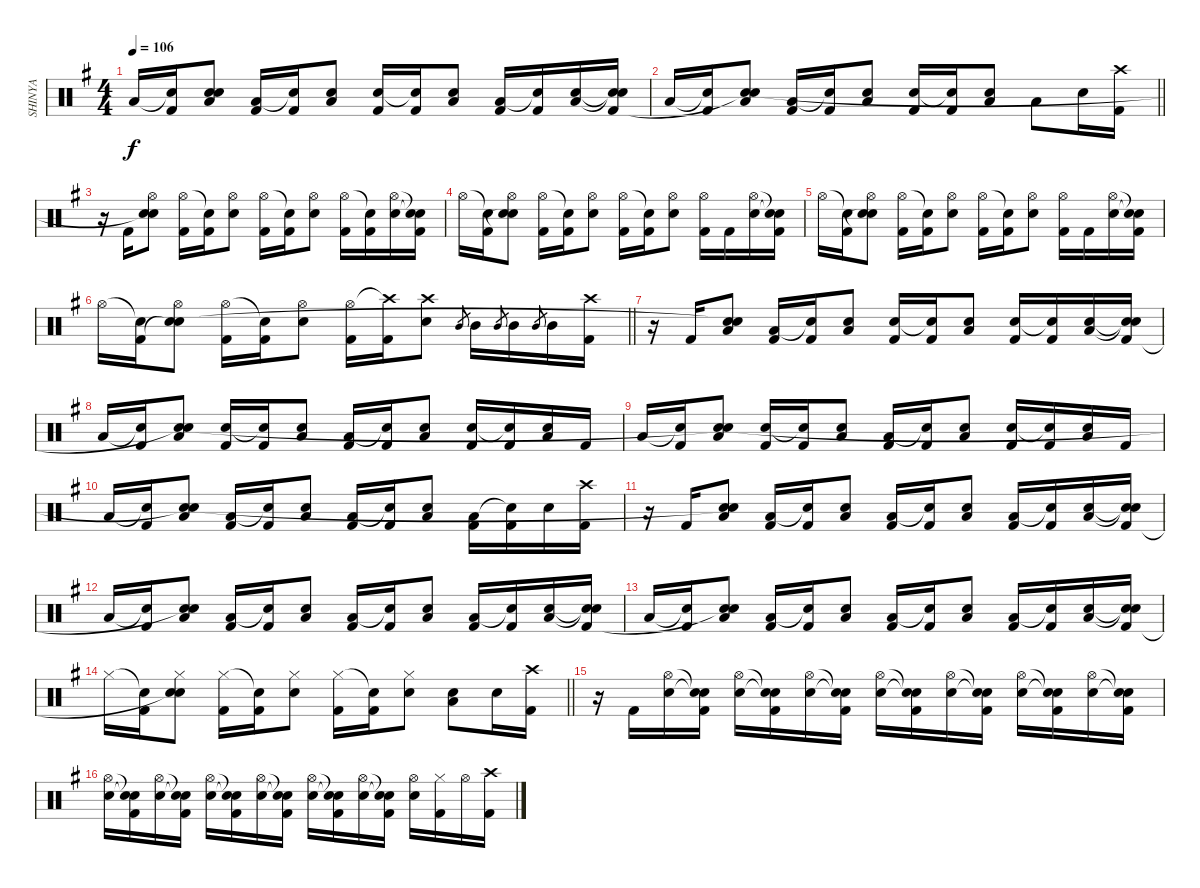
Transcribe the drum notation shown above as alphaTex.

\track ("SHINYA" "SHINYA") {instrument percussion}
\staff {score}
\articulation defaults
\ts (4 4)
\tempo 106
\clef neutral
\ks g "Low Floor Tom (hit)".16{dy f}
("Snare (hit)"{t} "Kick (hit) 2").16 ("Low Floor Tom (hit)" "Electric Snare (hit)" "Snare (hit)"{t}).8 ("Low Floor Tom (hit)" "Kick (hit) 2").16 ("Snare (hit)"{t} "Kick (hit) 2").16 ("Low Floor Tom (hit)" "Electric Snare (hit)").8 ("Electric Snare (hit)" "Kick (hit) 2").16 ("Snare (hit)"{t} "Kick (hit) 2").16 ("Low Floor Tom (hit)" "Electric Snare (hit)").8 ("Low Floor Tom (hit)" "Kick (hit) 2").16 ("Snare (hit)"{t} "Kick (hit) 2").16 ("Low Floor Tom (hit)" "Electric Snare (hit)").16 ("Snare (hit)"{t} "Snare (hit)"{t} "Kick (hit) 2").16 |
\barLineRight lightlight "Low Floor Tom (hit)".16
("Snare (hit)"{t} "Kick (hit) 2").16 ("Low Floor Tom (hit)" "Electric Snare (hit)" "Snare (hit)"{t}).8 ("Low Floor Tom (hit)" "Kick (hit) 2").16 ("Snare (hit)"{t} "Kick (hit) 2").16 ("Low Floor Tom (hit)" "Electric Snare (hit)").8 ("Electric Snare (hit)" "Kick (hit) 2").16 ("Snare (hit)"{t} "Kick (hit) 2").16 ("Low Floor Tom (hit)" "Electric Snare (hit)").8 "Low Floor Tom (hit)".8 "Electric Snare (hit)".16 ("Crash high (hit)" "Kick (hit) 2").16 |
r.16 "Kick (hit) 2".16 ("Hi-Hat (open)" "Electric Snare (hit)" "Snare (hit)"{t}).8 ("Hi-Hat (open)" "Kick (hit) 2").16 ("Snare (hit)"{t} "Kick (hit) 2").16 ("Hi-Hat (open)" "Electric Snare (hit)").8 ("Hi-Hat (open)" "Kick (hit) 2").16 ("Snare (hit)"{t} "Kick (hit) 2").16 ("Hi-Hat (open)" "Electric Snare (hit)").8 ("Hi-Hat (open)" "Kick (hit) 2").16 ("Snare (hit)"{t} "Kick (hit) 2").16 ("Hi-Hat (open)" "Electric Snare (hit)").16 ("Snare (hit)"{t} "Snare (hit)"{t} "Kick (hit) 2").16 |
"Hi-Hat (open)".16 ("Snare (hit)"{t} "Kick (hit) 2").16 ("Hi-Hat (open)" "Snare (hit)"{t} "Electric Snare (hit)").8 ("Hi-Hat (open)" "Kick (hit) 2").16 ("Snare (hit)"{t} "Kick (hit) 2").16 ("Hi-Hat (open)" "Electric Snare (hit)").8 ("Hi-Hat (open)" "Kick (hit) 2").16 ("Snare (hit)"{t} "Kick (hit) 2").16 ("Hi-Hat (open)" "Electric Snare (hit)").8 ("Hi-Hat (open)" "Kick (hit) 2").16 "Kick (hit) 2".16 ("Hi-Hat (open)" "Electric Snare (hit)").16 ("Snare (hit)"{t} "Snare (hit)"{t} "Kick (hit) 2").16 |
"Hi-Hat (open)".16 ("Snare (hit)"{t} "Kick (hit) 2").16 ("Hi-Hat (open)" "Snare (hit)"{t} "Electric Snare (hit)").8 ("Hi-Hat (open)" "Kick (hit) 2").16 ("Snare (hit)"{t} "Kick (hit) 2").16 ("Hi-Hat (open)" "Electric Snare (hit)").8 ("Hi-Hat (open)" "Kick (hit) 2").16 ("Snare (hit)"{t} "Kick (hit) 2").16 ("Hi-Hat (open)" "Electric Snare (hit)").8 ("Hi-Hat (open)" "Kick (hit) 2").16 "Kick (hit) 2".16 ("Hi-Hat (open)" "Electric Snare (hit)").16 ("Snare (hit)"{t} "Snare (hit)"{t} "Kick (hit) 2").16 |
\barLineRight lightlight "Hi-Hat (open)".16
("Snare (hit)"{t} "Kick (hit) 2").16 ("Hi-Hat (open)" "Snare (hit)"{t} "Electric Snare (hit)").8 ("Hi-Hat (open)" "Kick (hit) 2").16 ("Snare (hit)"{t} "Kick (hit) 2").16 ("Hi-Hat (open)" "Electric Snare (hit)").8 ("Hi-Hat (open)" "Kick (hit) 2").16 ("Crash high (hit)"{t} "Kick (hit) 2").16 ("Crash high (hit)" "Electric Snare (hit)").8 "Mid Tom (hit)".8{gr} "Mid Tom (hit)".16 "Mid Tom (hit)".8{gr} "Mid Tom (hit)".16 "Mid Tom (hit)".8{gr} "Mid Tom (hit)".16 ("Crash high (hit)" "Kick (hit) 2").16 |
r.16 "Kick (hit) 2".16 ("Low Floor Tom (hit)" "Electric Snare (hit)" "Snare (hit)"{t}).8 ("Low Floor Tom (hit)" "Kick (hit) 2").16 ("Snare (hit)"{t} "Kick (hit) 2").16 ("Low Floor Tom (hit)" "Electric Snare (hit)").8 ("Electric Snare (hit)" "Kick (hit) 2").16 ("Snare (hit)"{t} "Kick (hit) 2").16 ("Low Floor Tom (hit)" "Electric Snare (hit)").8 ("Electric Snare (hit)" "Kick (hit) 2").16 ("Snare (hit)"{t} "Kick (hit) 2").16 ("Low Floor Tom (hit)" "Electric Snare (hit)").16 ("Snare (hit)"{t} "Snare (hit)"{t} "Kick (hit) 2").16 |
"Low Floor Tom (hit)".16 ("Snare (hit)"{t} "Kick (hit) 2").16 ("Low Floor Tom (hit)" "Electric Snare (hit)" "Snare (hit)"{t}).8 ("Electric Snare (hit)" "Kick (hit) 2").16 ("Snare (hit)"{t} "Kick (hit) 2").16 ("Low Floor Tom (hit)" "Electric Snare (hit)").8 ("Low Floor Tom (hit)" "Kick (hit) 2").16 ("Snare (hit)"{t} "Kick (hit) 2").16 ("Low Floor Tom (hit)" "Electric Snare (hit)").8 ("Electric Snare (hit)" "Kick (hit) 2").16 ("Snare (hit)"{t} "Kick (hit) 2").16 ("Low Floor Tom (hit)" "Electric Snare (hit)").16 "Kick (hit) 2".16 |
"Low Floor Tom (hit)".16 ("Snare (hit)"{t} "Kick (hit) 2").16 ("Low Floor Tom (hit)" "Electric Snare (hit)" "Snare (hit)"{t}).8 ("Electric Snare (hit)" "Kick (hit) 2").16 ("Snare (hit)"{t} "Kick (hit) 2").16 ("Low Floor Tom (hit)" "Electric Snare (hit)").8 ("Low Floor Tom (hit)" "Kick (hit) 2").16 ("Snare (hit)"{t} "Kick (hit) 2").16 ("Low Floor Tom (hit)" "Electric Snare (hit)").8 ("Electric Snare (hit)" "Kick (hit) 2").16 ("Snare (hit)"{t} "Kick (hit) 2").16 ("Low Floor Tom (hit)" "Electric Snare (hit)").16 "Kick (hit) 2".16 |
"Low Floor Tom (hit)".16 ("Snare (hit)"{t} "Kick (hit) 2").16 ("Low Floor Tom (hit)" "Electric Snare (hit)" "Snare (hit)"{t}).8 ("Low Floor Tom (hit)" "Kick (hit) 2").16 ("Snare (hit)"{t} "Kick (hit) 2").16 ("Low Floor Tom (hit)" "Electric Snare (hit)").8 ("Low Floor Tom (hit)" "Kick (hit) 2").16 ("Snare (hit)"{t} "Kick (hit) 2").16 ("Low Floor Tom (hit)" "Electric Snare (hit)").8 ("Low Floor Tom (hit)" "Kick (hit) 2").16 ("Snare (hit)"{t} "Kick (hit) 2").16 "Electric Snare (hit)".16 ("Crash high (hit)" "Kick (hit) 2").16 |
r.16 "Kick (hit) 2".16 ("Low Floor Tom (hit)" "Electric Snare (hit)" "Snare (hit)"{t}).8 ("Low Floor Tom (hit)" "Kick (hit) 2").16 ("Snare (hit)"{t} "Kick (hit) 2").16 ("Low Floor Tom (hit)" "Electric Snare (hit)").8 ("Low Floor Tom (hit)" "Kick (hit) 2").16 ("Snare (hit)"{t} "Kick (hit) 2").16 ("Low Floor Tom (hit)" "Electric Snare (hit)").8 ("Low Floor Tom (hit)" "Kick (hit) 2").16 ("Snare (hit)"{t} "Kick (hit) 2").16 ("Low Floor Tom (hit)" "Electric Snare (hit)").16 ("Snare (hit)"{t} "Snare (hit)"{t} "Kick (hit) 2").16 |
"Low Floor Tom (hit)".16 ("Snare (hit)"{t} "Kick (hit) 2").16 ("Low Floor Tom (hit)" "Electric Snare (hit)" "Snare (hit)"{t}).8 ("Low Floor Tom (hit)" "Kick (hit) 2").16 ("Snare (hit)"{t} "Kick (hit) 2").16 ("Low Floor Tom (hit)" "Electric Snare (hit)").8 ("Low Floor Tom (hit)" "Kick (hit) 2").16 ("Snare (hit)"{t} "Kick (hit) 2").16 ("Low Floor Tom (hit)" "Electric Snare (hit)").8 ("Low Floor Tom (hit)" "Kick (hit) 2").16 ("Snare (hit)"{t} "Kick (hit) 2").16 ("Low Floor Tom (hit)" "Electric Snare (hit)").16 ("Snare (hit)"{t} "Snare (hit)"{t} "Kick (hit) 2").16 |
"Low Floor Tom (hit)".16 ("Snare (hit)"{t} "Kick (hit) 2").16 ("Low Floor Tom (hit)" "Electric Snare (hit)" "Snare (hit)"{t}).8 ("Low Floor Tom (hit)" "Kick (hit) 2").16 ("Snare (hit)"{t} "Kick (hit) 2").16 ("Low Floor Tom (hit)" "Electric Snare (hit)").8 ("Low Floor Tom (hit)" "Kick (hit) 2").16 ("Snare (hit)"{t} "Kick (hit) 2").16 ("Low Floor Tom (hit)" "Electric Snare (hit)").8 ("Low Floor Tom (hit)" "Kick (hit) 2").16 ("Snare (hit)"{t} "Kick (hit) 2").16 ("Low Floor Tom (hit)" "Electric Snare (hit)").16 ("Snare (hit)"{t} "Snare (hit)"{t} "Kick (hit) 2").16 |
\barLineRight lightlight "Hi-Hat (closed)".16
("Snare (hit)"{t} "Kick (hit) 2").16 ("Hi-Hat (closed)" "Electric Snare (hit)" "Snare (hit)"{t}).8 ("Hi-Hat (closed)" "Kick (hit) 2").16 ("Snare (hit)"{t} "Kick (hit) 2").16 ("Hi-Hat (closed)" "Electric Snare (hit)").8 ("Hi-Hat (closed)" "Kick (hit) 2").16 ("Snare (hit)"{t} "Kick (hit) 2").16 ("Hi-Hat (closed)" "Electric Snare (hit)").8 ("Electric Snare (hit)" "Low Floor Tom (hit)").8 "Electric Snare (hit)".16 ("Crash high (hit)" "Kick (hit) 2").16 |
r.16 "Kick (hit) 2".16 ("Hi-Hat (open)" "Electric Snare (hit)").16 ("Snare (hit)"{t} "Snare (hit)"{t} "Kick (hit) 2").16 ("Hi-Hat (open)" "Electric Snare (hit)").16 ("Snare (hit)"{t} "Snare (hit)"{t} "Kick (hit) 2").16 ("Hi-Hat (open)" "Electric Snare (hit)").16 ("Snare (hit)"{t} "Snare (hit)"{t} "Kick (hit) 2").16 ("Hi-Hat (open)" "Electric Snare (hit)").16 ("Snare (hit)"{t} "Snare (hit)"{t} "Kick (hit) 2").16 ("Hi-Hat (open)" "Electric Snare (hit)").16 ("Snare (hit)"{t} "Snare (hit)"{t} "Kick (hit) 2").16 ("Hi-Hat (open)" "Electric Snare (hit)").16 ("Snare (hit)"{t} "Snare (hit)"{t} "Kick (hit) 2").16 ("Hi-Hat (open)" "Electric Snare (hit)").16 ("Snare (hit)"{t} "Snare (hit)"{t} "Kick (hit) 2").16 |
("Hi-Hat (open)" "Electric Snare (hit)").16 ("Snare (hit)"{t} "Snare (hit)"{t} "Kick (hit) 2").16 ("Hi-Hat (open)" "Electric Snare (hit)").16 ("Snare (hit)"{t} "Snare (hit)"{t} "Kick (hit) 2").16 ("Hi-Hat (open)" "Electric Snare (hit)").16 ("Snare (hit)"{t} "Snare (hit)"{t} "Kick (hit) 2").16 ("Hi-Hat (open)" "Electric Snare (hit)").16 ("Snare (hit)"{t} "Snare (hit)"{t} "Kick (hit) 2").16 ("Hi-Hat (open)" "Electric Snare (hit)").16 ("Snare (hit)"{t} "Snare (hit)"{t} "Kick (hit) 2").16 ("Hi-Hat (open)" "Electric Snare (hit)").16 ("Snare (hit)"{t} "Snare (hit)"{t} "Kick (hit) 2").16 ("Hi-Hat (open)" "Electric Snare (hit)").16 ("Hi-Hat (closed)" "Kick (hit) 2").16 "Hi-Hat (open)".16 ("Crash high (hit)" "Kick (hit) 2").16
